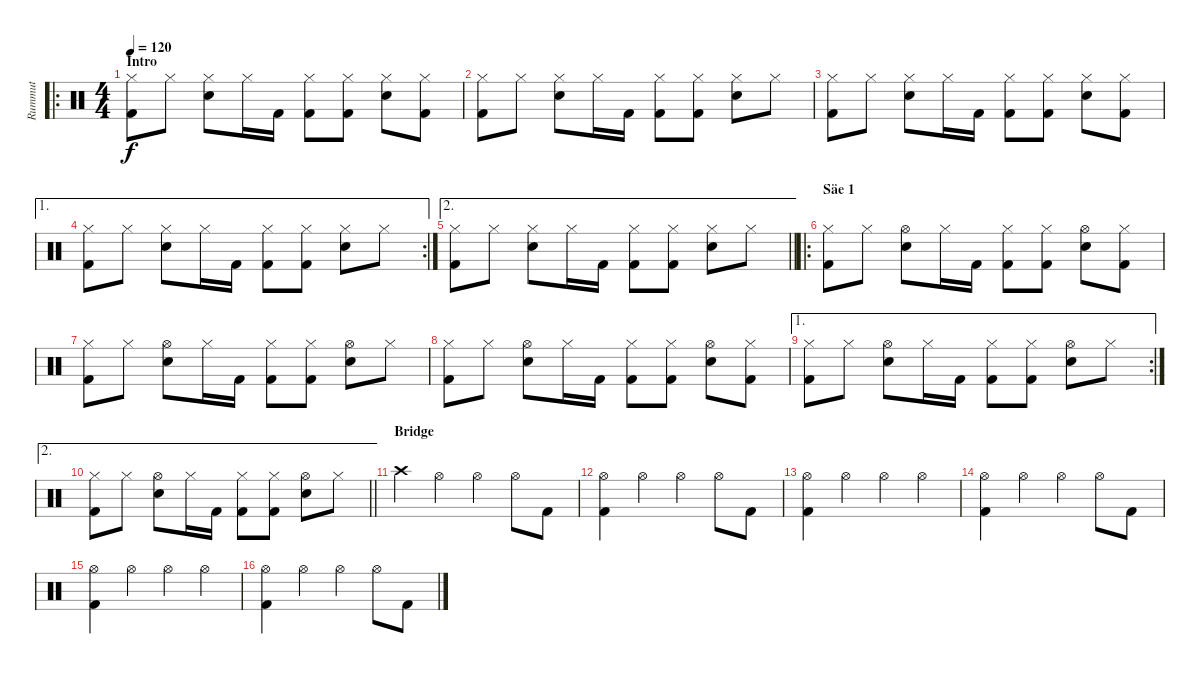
\track ("Rummut" "Rummut") {instrument percussion}
\staff {score}
\articulation defaults
\ro
\ts (4 4)
\section ("" "Intro")
\tempo 120
\clef neutral
\ks c
("Hi-Hat (closed)" "Kick (hit) 2").8{dy f} "Hi-Hat (closed)".8 ("Hi-Hat (closed)" "Snare (hit) 2").8 "Hi-Hat (closed)".16 "Kick (hit) 2".16 ("Hi-Hat (closed)" "Kick (hit) 2").8 ("Hi-Hat (closed)" "Kick (hit) 2").8 ("Hi-Hat (closed)" "Snare (hit) 2").8 ("Hi-Hat (closed)" "Kick (hit) 2").8 |
("Hi-Hat (closed)" "Kick (hit) 2").8 "Hi-Hat (closed)".8 ("Hi-Hat (closed)" "Snare (hit) 2").8 "Hi-Hat (closed)".16 "Kick (hit) 2".16 ("Hi-Hat (closed)" "Kick (hit) 2").8 ("Hi-Hat (closed)" "Kick (hit) 2").8 ("Hi-Hat (closed)" "Snare (hit) 2").8 "Hi-Hat (closed)".8 |
("Hi-Hat (closed)" "Kick (hit) 2").8 "Hi-Hat (closed)".8 ("Hi-Hat (closed)" "Snare (hit) 2").8 "Hi-Hat (closed)".16 "Kick (hit) 2".16 ("Hi-Hat (closed)" "Kick (hit) 2").8 ("Hi-Hat (closed)" "Kick (hit) 2").8 ("Hi-Hat (closed)" "Snare (hit) 2").8 ("Hi-Hat (closed)" "Kick (hit) 2").8 |
\ae 1
\rc 2
("Hi-Hat (closed)" "Kick (hit) 2").8 "Hi-Hat (closed)".8 ("Hi-Hat (closed)" "Snare (hit) 2").8 "Hi-Hat (closed)".16 "Kick (hit) 2".16 ("Hi-Hat (closed)" "Kick (hit) 2").8 ("Hi-Hat (closed)" "Kick (hit) 2").8 ("Hi-Hat (closed)" "Snare (hit) 2").8 "Hi-Hat (closed)".8 |
\ae 2
\barLineRight lightlight
("Hi-Hat (closed)" "Kick (hit) 2").8 "Hi-Hat (closed)".8 ("Hi-Hat (closed)" "Snare (hit) 2").8 "Hi-Hat (closed)".16 "Kick (hit) 2".16 ("Hi-Hat (closed)" "Kick (hit) 2").8 ("Hi-Hat (closed)" "Kick (hit) 2").8 ("Hi-Hat (closed)" "Snare (hit) 2").8 "Hi-Hat (closed)".8 |
\ro
\section ("" "Säe 1")
("Hi-Hat (closed)" "Kick (hit) 2").8 "Hi-Hat (closed)".8 ("Hi-Hat (open)" "Snare (hit) 2").8 "Hi-Hat (closed)".16 "Kick (hit) 2".16 ("Hi-Hat (closed)" "Kick (hit) 2").8 ("Hi-Hat (closed)" "Kick (hit) 2").8 ("Hi-Hat (open)" "Snare (hit) 2").8 ("Hi-Hat (closed)" "Kick (hit) 2").8 |
("Hi-Hat (closed)" "Kick (hit) 2").8 "Hi-Hat (closed)".8 ("Hi-Hat (open)" "Snare (hit) 2").8 "Hi-Hat (closed)".16 "Kick (hit) 2".16 ("Hi-Hat (closed)" "Kick (hit) 2").8 ("Hi-Hat (closed)" "Kick (hit) 2").8 ("Hi-Hat (open)" "Snare (hit) 2").8 "Hi-Hat (closed)".8 |
("Hi-Hat (closed)" "Kick (hit) 2").8 "Hi-Hat (closed)".8 ("Hi-Hat (open)" "Snare (hit) 2").8 "Hi-Hat (closed)".16 "Kick (hit) 2".16 ("Hi-Hat (closed)" "Kick (hit) 2").8 ("Hi-Hat (closed)" "Kick (hit) 2").8 ("Hi-Hat (open)" "Snare (hit) 2").8 ("Hi-Hat (closed)" "Kick (hit) 2").8 |
\ae 1
\rc 2
("Hi-Hat (closed)" "Kick (hit) 2").8 "Hi-Hat (closed)".8 ("Hi-Hat (open)" "Snare (hit) 2").8 "Hi-Hat (closed)".16 "Kick (hit) 2".16 ("Hi-Hat (closed)" "Kick (hit) 2").8 ("Hi-Hat (closed)" "Kick (hit) 2").8 ("Hi-Hat (open)" "Snare (hit) 2").8 "Hi-Hat (closed)".8 |
\ae 2
\barLineRight lightlight
("Hi-Hat (closed)" "Kick (hit) 2").8 "Hi-Hat (closed)".8 ("Hi-Hat (open)" "Snare (hit) 2").8 "Hi-Hat (closed)".16 "Kick (hit) 2".16 ("Hi-Hat (closed)" "Kick (hit) 2").8 ("Hi-Hat (closed)" "Kick (hit) 2").8 ("Hi-Hat (open)" "Snare (hit) 2").8 "Hi-Hat (closed)".8 |
\section ("" "Bridge")
"Crash high (hit)".4 "Hi-Hat (open)".4 "Hi-Hat (open)".4 "Hi-Hat (open)".8 "Kick (hit) 2".8 |
("Hi-Hat (open)" "Kick (hit) 2").4 "Hi-Hat (open)".4 "Hi-Hat (open)".4 "Hi-Hat (open)".8 "Kick (hit) 2".8 |
("Hi-Hat (open)" "Kick (hit) 2").4 "Hi-Hat (open)".4 "Hi-Hat (open)".4 "Hi-Hat (open)".4 |
("Hi-Hat (open)" "Kick (hit) 2").4 "Hi-Hat (open)".4 "Hi-Hat (open)".4 "Hi-Hat (open)".8 "Kick (hit) 2".8 |
("Hi-Hat (open)" "Kick (hit) 2").4 "Hi-Hat (open)".4 "Hi-Hat (open)".4 "Hi-Hat (open)".4 |
("Hi-Hat (open)" "Kick (hit) 2").4 "Hi-Hat (open)".4 "Hi-Hat (open)".4 "Hi-Hat (open)".8 "Kick (hit) 2".8
